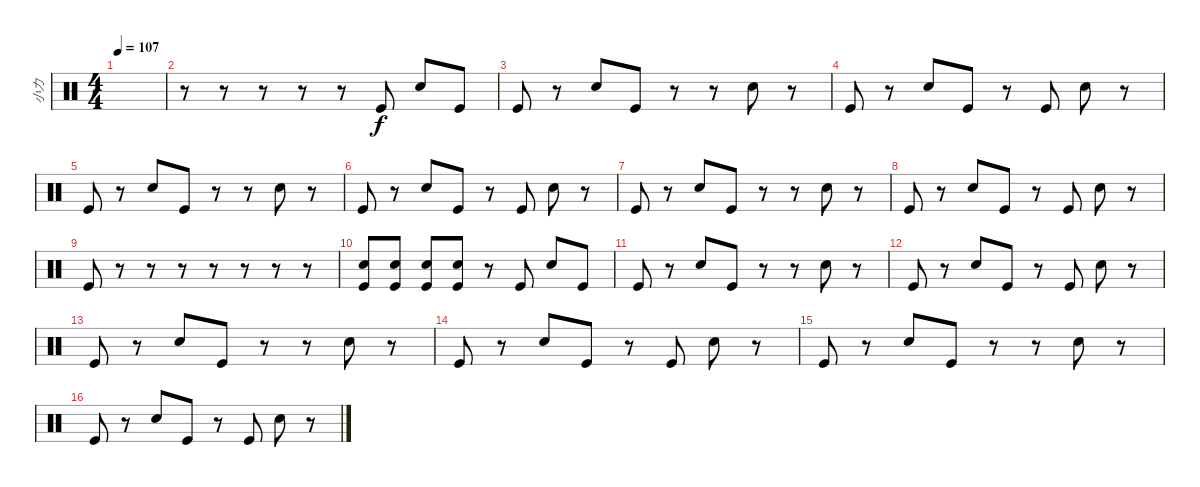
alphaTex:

\track ("小力" "小力") {instrument percussion}
\staff {score}
\articulation defaults
\ts (4 4)
\tempo 107
\clef neutral
\ks c
|
r.8 r.8 r.8 r.8 r.8 "Kick (hit)".8 "Electric Snare (hit)".8 "Kick (hit)".8 |
"Kick (hit)".8 r.8 "Electric Snare (hit)".8 "Kick (hit)".8 r.8 r.8 "Electric Snare (hit)".8 r.8 |
"Kick (hit)".8 r.8 "Electric Snare (hit)".8 "Kick (hit)".8 r.8 "Kick (hit)".8 "Electric Snare (hit)".8 r.8 |
"Kick (hit)".8 r.8 "Electric Snare (hit)".8 "Kick (hit)".8 r.8 r.8 "Electric Snare (hit)".8 r.8 |
"Kick (hit)".8 r.8 "Electric Snare (hit)".8 "Kick (hit)".8 r.8 "Kick (hit)".8 "Electric Snare (hit)".8 r.8 |
"Kick (hit)".8 r.8 "Electric Snare (hit)".8 "Kick (hit)".8 r.8 r.8 "Electric Snare (hit)".8 r.8 |
"Kick (hit)".8 r.8 "Electric Snare (hit)".8 "Kick (hit)".8 r.8 "Kick (hit)".8 "Electric Snare (hit)".8 r.8 |
"Kick (hit)".8 r.8 r.8 r.8 r.8 r.8 r.8 r.8 |
("Kick (hit)" "Electric Snare (hit)").8 ("Kick (hit)" "Electric Snare (hit)").8 ("Kick (hit)" "Electric Snare (hit)").8 ("Kick (hit)" "Electric Snare (hit)").8 r.8 "Kick (hit)".8 "Electric Snare (hit)".8 "Kick (hit)".8 |
"Kick (hit)".8 r.8 "Electric Snare (hit)".8 "Kick (hit)".8 r.8 r.8 "Electric Snare (hit)".8 r.8 |
"Kick (hit)".8 r.8 "Electric Snare (hit)".8 "Kick (hit)".8 r.8 "Kick (hit)".8 "Electric Snare (hit)".8 r.8 |
"Kick (hit)".8 r.8 "Electric Snare (hit)".8 "Kick (hit)".8 r.8 r.8 "Electric Snare (hit)".8 r.8 |
"Kick (hit)".8 r.8 "Electric Snare (hit)".8 "Kick (hit)".8 r.8 "Kick (hit)".8 "Electric Snare (hit)".8 r.8 |
"Kick (hit)".8 r.8 "Electric Snare (hit)".8 "Kick (hit)".8 r.8 r.8 "Electric Snare (hit)".8 r.8 |
"Kick (hit)".8 r.8 "Electric Snare (hit)".8 "Kick (hit)".8 r.8 "Kick (hit)".8 "Electric Snare (hit)".8 r.8
